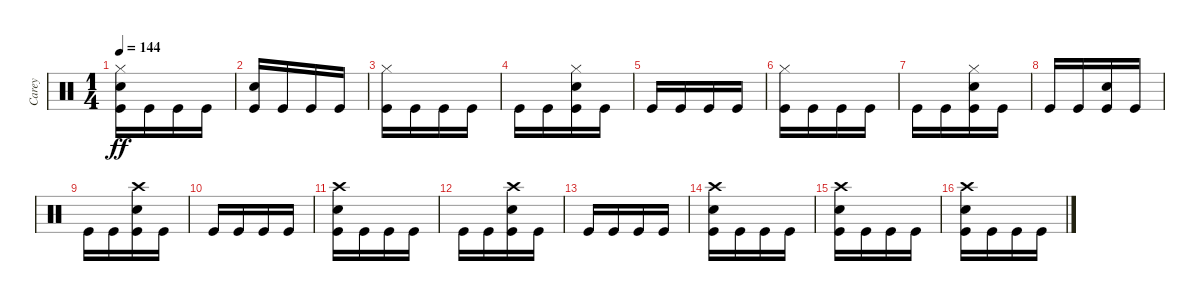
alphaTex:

\track ("Carey" "Carey") {instrument percussion}
\staff {score}
\articulation defaults
\ts (1 4)
\tempo 144
\clef neutral
\ks c
("Kick (hit)" "Snare (hit) 2" "Hi-Hat (closed)").16{dy ff} "Kick (hit)".16 "Kick (hit)".16 "Kick (hit)".16 |
("Kick (hit)" "Snare (hit) 2").16 "Kick (hit)".16 "Kick (hit)".16 "Kick (hit)".16 |
("Kick (hit)" "Hi-Hat (closed)").16 "Kick (hit)".16 "Kick (hit)".16 "Kick (hit)".16 |
"Kick (hit)".16 "Kick (hit)".16 ("Kick (hit)" "Snare (hit) 2" "Hi-Hat (closed)").16 "Kick (hit)".16 |
"Kick (hit)".16 "Kick (hit)".16 "Kick (hit)".16 "Kick (hit)".16 |
("Kick (hit)" "Hi-Hat (closed)").16 "Kick (hit)".16 "Kick (hit)".16 "Kick (hit)".16 |
"Kick (hit)".16 "Kick (hit)".16 ("Kick (hit)" "Snare (hit) 2" "Hi-Hat (closed)").16 "Kick (hit)".16 |
"Kick (hit)".16 "Kick (hit)".16 ("Kick (hit)" "Snare (hit) 2").16 "Kick (hit)".16 |
"Kick (hit)".16 "Kick (hit)".16 ("Kick (hit)" "Snare (hit) 2" "Crash high (hit)").16 "Kick (hit)".16 |
"Kick (hit)".16 "Kick (hit)".16 "Kick (hit)".16 "Kick (hit)".16 |
("Kick (hit)" "Snare (hit) 2" "Crash high (hit)").16 "Kick (hit)".16 "Kick (hit)".16 "Kick (hit)".16 |
"Kick (hit)".16 "Kick (hit)".16 ("Kick (hit)" "Snare (hit) 2" "Crash high (hit)").16 "Kick (hit)".16 |
"Kick (hit)".16 "Kick (hit)".16 "Kick (hit)".16 "Kick (hit)".16 |
("Kick (hit)" "Snare (hit) 2" "Crash high (hit)").16 "Kick (hit)".16 "Kick (hit)".16 "Kick (hit)".16 |
("Kick (hit)" "Snare (hit) 2" "Crash high (hit)").16 "Kick (hit)".16 "Kick (hit)".16 "Kick (hit)".16 |
("Kick (hit)" "Snare (hit) 2" "Crash high (hit)").16 "Kick (hit)".16 "Kick (hit)".16 "Kick (hit)".16
